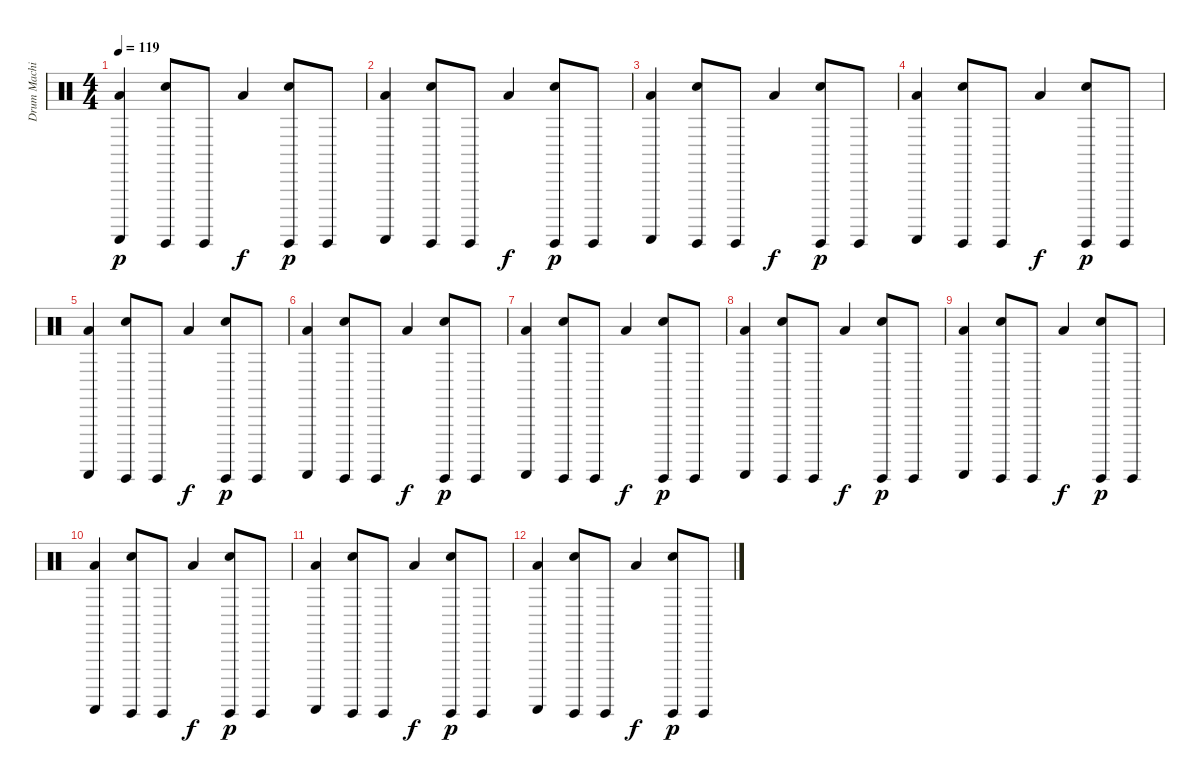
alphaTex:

\track ("Drum Machine" "Drum Machi") {instrument percussion}
\staff {score}
\articulation defaults
\ts (4 4)
\tempo 119
\clef neutral
\ks c
("Low Floor Tom (hit)" "Guiro (scrap-return)").4{dy p} ("Snare (hit) 2" "Guiro (hit)").8 "Guiro (hit)".8 "Low Floor Tom (hit)".4{dy f} ("Snare (hit) 2" "Guiro (hit)").8{dy p} "Guiro (hit)".8 |
("Low Floor Tom (hit)" "Guiro (scrap-return)").4 ("Snare (hit) 2" "Guiro (hit)").8 "Guiro (hit)".8 "Low Floor Tom (hit)".4{dy f} ("Snare (hit) 2" "Guiro (hit)").8{dy p} "Guiro (hit)".8 |
("Low Floor Tom (hit)" "Guiro (scrap-return)").4 ("Snare (hit) 2" "Guiro (hit)").8 "Guiro (hit)".8 "Low Floor Tom (hit)".4{dy f} ("Snare (hit) 2" "Guiro (hit)").8{dy p} "Guiro (hit)".8 |
("Low Floor Tom (hit)" "Guiro (scrap-return)").4 ("Snare (hit) 2" "Guiro (hit)").8 "Guiro (hit)".8 "Low Floor Tom (hit)".4{dy f} ("Snare (hit) 2" "Guiro (hit)").8{dy p} "Guiro (hit)".8 |
("Low Floor Tom (hit)" "Guiro (scrap-return)").4 ("Snare (hit) 2" "Guiro (hit)").8 "Guiro (hit)".8 "Low Floor Tom (hit)".4{dy f} ("Snare (hit) 2" "Guiro (hit)").8{dy p} "Guiro (hit)".8 |
("Low Floor Tom (hit)" "Guiro (scrap-return)").4 ("Snare (hit) 2" "Guiro (hit)").8 "Guiro (hit)".8 "Low Floor Tom (hit)".4{dy f} ("Snare (hit) 2" "Guiro (hit)").8{dy p} "Guiro (hit)".8 |
("Low Floor Tom (hit)" "Guiro (scrap-return)").4 ("Snare (hit) 2" "Guiro (hit)").8 "Guiro (hit)".8 "Low Floor Tom (hit)".4{dy f} ("Snare (hit) 2" "Guiro (hit)").8{dy p} "Guiro (hit)".8 |
("Low Floor Tom (hit)" "Guiro (scrap-return)").4 ("Snare (hit) 2" "Guiro (hit)").8 "Guiro (hit)".8 "Low Floor Tom (hit)".4{dy f} ("Snare (hit) 2" "Guiro (hit)").8{dy p} "Guiro (hit)".8 |
("Low Floor Tom (hit)" "Guiro (scrap-return)").4 ("Snare (hit) 2" "Guiro (hit)").8 "Guiro (hit)".8 "Low Floor Tom (hit)".4{dy f} ("Snare (hit) 2" "Guiro (hit)").8{dy p} "Guiro (hit)".8 |
("Low Floor Tom (hit)" "Guiro (scrap-return)").4 ("Snare (hit) 2" "Guiro (hit)").8 "Guiro (hit)".8 "Low Floor Tom (hit)".4{dy f} ("Snare (hit) 2" "Guiro (hit)").8{dy p} "Guiro (hit)".8 |
("Low Floor Tom (hit)" "Guiro (scrap-return)").4 ("Snare (hit) 2" "Guiro (hit)").8 "Guiro (hit)".8 "Low Floor Tom (hit)".4{dy f} ("Snare (hit) 2" "Guiro (hit)").8{dy p} "Guiro (hit)".8 |
("Low Floor Tom (hit)" "Guiro (scrap-return)").4 ("Snare (hit) 2" "Guiro (hit)").8 "Guiro (hit)".8 "Low Floor Tom (hit)".4{dy f} ("Snare (hit) 2" "Guiro (hit)").8{dy p} "Guiro (hit)".8
